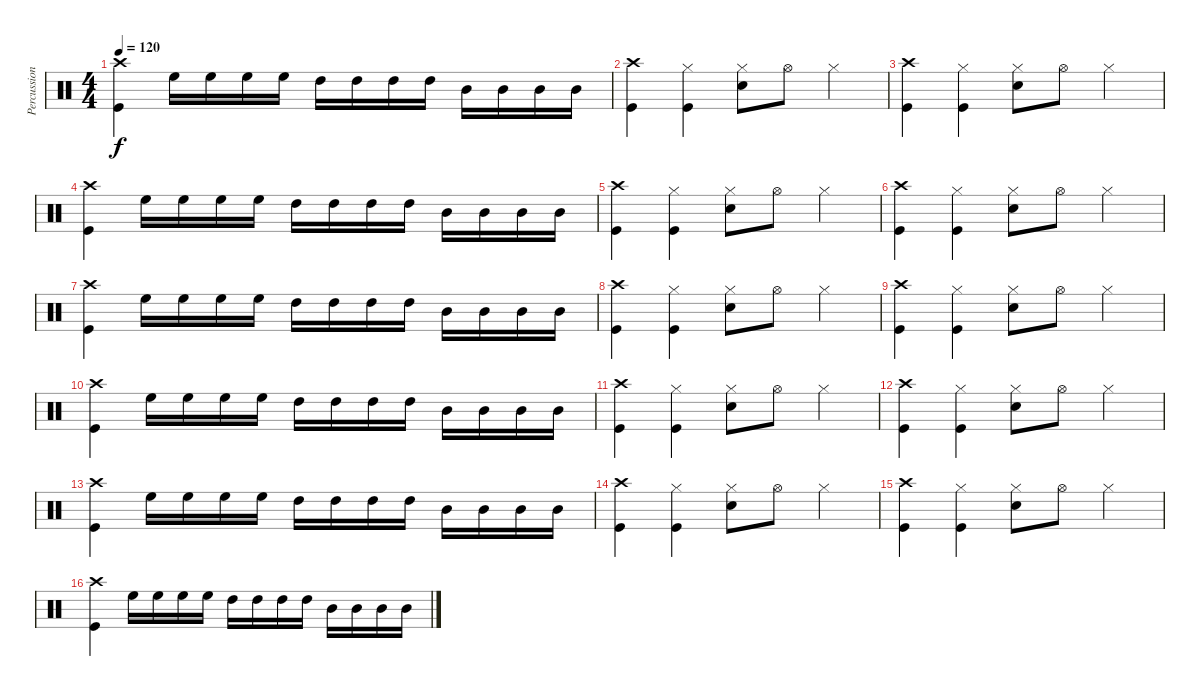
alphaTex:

\track ("Percussion" "Percussion") {instrument percussion}
\staff {score}
\articulation defaults
\ts (4 4)
\tempo 120
\clef neutral
\ks c
("Crash high (hit)" "Kick (hit)").4{dy f} "High Floor Tom (hit)".16 "High Floor Tom (hit)".16 "High Floor Tom (hit)".16 "High Floor Tom (hit)".16 "High Tom (hit)".16 "High Tom (hit)".16 "High Tom (hit)".16 "High Tom (hit)".16 "Mid Tom (hit)".16 "Mid Tom (hit)".16 "Mid Tom (hit)".16 "Mid Tom (hit)".16 |
("Crash high (hit)" "Kick (hit)").4 ("Hi-Hat (closed)" "Kick (hit)").4 ("Hi-Hat (closed)" "Snare (hit) 2").8 "Hi-Hat (open)".8 "Hi-Hat (closed)".4 |
("Crash high (hit)" "Kick (hit)").4 ("Hi-Hat (closed)" "Kick (hit)").4 ("Hi-Hat (closed)" "Snare (hit) 2").8 "Hi-Hat (open)".8 "Hi-Hat (closed)".4 |
("Crash high (hit)" "Kick (hit)").4 "High Floor Tom (hit)".16 "High Floor Tom (hit)".16 "High Floor Tom (hit)".16 "High Floor Tom (hit)".16 "High Tom (hit)".16 "High Tom (hit)".16 "High Tom (hit)".16 "High Tom (hit)".16 "Mid Tom (hit)".16 "Mid Tom (hit)".16 "Mid Tom (hit)".16 "Mid Tom (hit)".16 |
("Crash high (hit)" "Kick (hit)").4 ("Hi-Hat (closed)" "Kick (hit)").4 ("Hi-Hat (closed)" "Snare (hit) 2").8 "Hi-Hat (open)".8 "Hi-Hat (closed)".4 |
("Crash high (hit)" "Kick (hit)").4 ("Hi-Hat (closed)" "Kick (hit)").4 ("Hi-Hat (closed)" "Snare (hit) 2").8 "Hi-Hat (open)".8 "Hi-Hat (closed)".4 |
("Crash high (hit)" "Kick (hit)").4 "High Floor Tom (hit)".16 "High Floor Tom (hit)".16 "High Floor Tom (hit)".16 "High Floor Tom (hit)".16 "High Tom (hit)".16 "High Tom (hit)".16 "High Tom (hit)".16 "High Tom (hit)".16 "Mid Tom (hit)".16 "Mid Tom (hit)".16 "Mid Tom (hit)".16 "Mid Tom (hit)".16 |
("Crash high (hit)" "Kick (hit)").4 ("Hi-Hat (closed)" "Kick (hit)").4 ("Hi-Hat (closed)" "Snare (hit) 2").8 "Hi-Hat (open)".8 "Hi-Hat (closed)".4 |
("Crash high (hit)" "Kick (hit)").4 ("Hi-Hat (closed)" "Kick (hit)").4 ("Hi-Hat (closed)" "Snare (hit) 2").8 "Hi-Hat (open)".8 "Hi-Hat (closed)".4 |
("Crash high (hit)" "Kick (hit)").4 "High Floor Tom (hit)".16 "High Floor Tom (hit)".16 "High Floor Tom (hit)".16 "High Floor Tom (hit)".16 "High Tom (hit)".16 "High Tom (hit)".16 "High Tom (hit)".16 "High Tom (hit)".16 "Mid Tom (hit)".16 "Mid Tom (hit)".16 "Mid Tom (hit)".16 "Mid Tom (hit)".16 |
("Crash high (hit)" "Kick (hit)").4 ("Hi-Hat (closed)" "Kick (hit)").4 ("Hi-Hat (closed)" "Snare (hit) 2").8 "Hi-Hat (open)".8 "Hi-Hat (closed)".4 |
("Crash high (hit)" "Kick (hit)").4 ("Hi-Hat (closed)" "Kick (hit)").4 ("Hi-Hat (closed)" "Snare (hit) 2").8 "Hi-Hat (open)".8 "Hi-Hat (closed)".4 |
("Crash high (hit)" "Kick (hit)").4 "High Floor Tom (hit)".16 "High Floor Tom (hit)".16 "High Floor Tom (hit)".16 "High Floor Tom (hit)".16 "High Tom (hit)".16 "High Tom (hit)".16 "High Tom (hit)".16 "High Tom (hit)".16 "Mid Tom (hit)".16 "Mid Tom (hit)".16 "Mid Tom (hit)".16 "Mid Tom (hit)".16 |
("Crash high (hit)" "Kick (hit)").4 ("Hi-Hat (closed)" "Kick (hit)").4 ("Hi-Hat (closed)" "Snare (hit) 2").8 "Hi-Hat (open)".8 "Hi-Hat (closed)".4 |
("Crash high (hit)" "Kick (hit)").4 ("Hi-Hat (closed)" "Kick (hit)").4 ("Hi-Hat (closed)" "Snare (hit) 2").8 "Hi-Hat (open)".8 "Hi-Hat (closed)".4 |
("Crash high (hit)" "Kick (hit)").4 "High Floor Tom (hit)".16 "High Floor Tom (hit)".16 "High Floor Tom (hit)".16 "High Floor Tom (hit)".16 "High Tom (hit)".16 "High Tom (hit)".16 "High Tom (hit)".16 "High Tom (hit)".16 "Mid Tom (hit)".16 "Mid Tom (hit)".16 "Mid Tom (hit)".16 "Mid Tom (hit)".16
